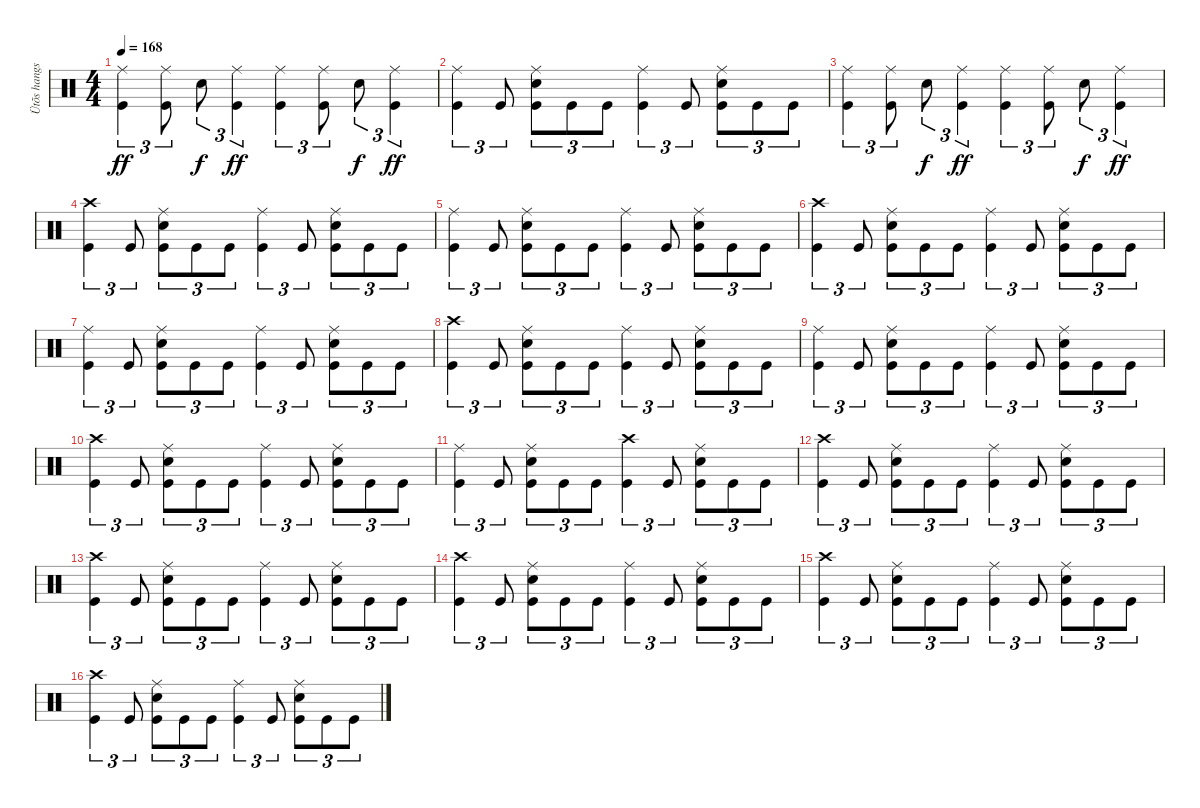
\track ("Ütõs hangszer" "Ütõs hangs") {instrument percussion}
\staff {score}
\articulation defaults
\ts (4 4)
\tempo 168
\clef neutral
\ks c
("Ride (middle)" "Kick (hit)").4{tu (3 2) dy ff} ("Ride (middle)" "Kick (hit)").8{tu (3 2)} "Electric Snare (hit)".8{tu (3 2) dy f} ("Ride (middle)" "Kick (hit)").4{tu (3 2) dy ff} ("Ride (middle)" "Kick (hit)").4{tu (3 2)} ("Ride (middle)" "Kick (hit)").8{tu (3 2)} "Electric Snare (hit)".8{tu (3 2) dy f} ("Ride (middle)" "Kick (hit)").4{tu (3 2) dy ff} |
("Ride (middle)" "Kick (hit)").4{tu (3 2)} "Kick (hit)".8{tu (3 2)} ("Ride (middle)" "Electric Snare (hit)" "Kick (hit)").8{tu (3 2)} "Kick (hit)".8{tu (3 2)} "Kick (hit)".8{tu (3 2)} ("Ride (middle)" "Kick (hit)").4{tu (3 2)} "Kick (hit)".8{tu (3 2)} ("Ride (middle)" "Electric Snare (hit)" "Kick (hit)").8{tu (3 2)} "Kick (hit)".8{tu (3 2)} "Kick (hit)".8{tu (3 2)} |
("Ride (middle)" "Kick (hit)").4{tu (3 2)} ("Ride (middle)" "Kick (hit)").8{tu (3 2)} "Electric Snare (hit)".8{tu (3 2) dy f} ("Ride (middle)" "Kick (hit)").4{tu (3 2) dy ff} ("Ride (middle)" "Kick (hit)").4{tu (3 2)} ("Ride (middle)" "Kick (hit)").8{tu (3 2)} "Electric Snare (hit)".8{tu (3 2) dy f} ("Ride (middle)" "Kick (hit)").4{tu (3 2) dy ff} |
("Crash high (hit)" "Kick (hit)").4{tu (3 2)} "Kick (hit)".8{tu (3 2)} ("Ride (middle)" "Electric Snare (hit)" "Kick (hit)").8{tu (3 2)} "Kick (hit)".8{tu (3 2)} "Kick (hit)".8{tu (3 2)} ("Ride (middle)" "Kick (hit)").4{tu (3 2)} "Kick (hit)".8{tu (3 2)} ("Ride (middle)" "Electric Snare (hit)" "Kick (hit)").8{tu (3 2)} "Kick (hit)".8{tu (3 2)} "Kick (hit)".8{tu (3 2)} |
("Ride (middle)" "Kick (hit)").4{tu (3 2)} "Kick (hit)".8{tu (3 2)} ("Ride (middle)" "Electric Snare (hit)" "Kick (hit)").8{tu (3 2)} "Kick (hit)".8{tu (3 2)} "Kick (hit)".8{tu (3 2)} ("Ride (middle)" "Kick (hit)").4{tu (3 2)} "Kick (hit)".8{tu (3 2)} ("Ride (middle)" "Electric Snare (hit)" "Kick (hit)").8{tu (3 2)} "Kick (hit)".8{tu (3 2)} "Kick (hit)".8{tu (3 2)} |
("Crash high (hit)" "Kick (hit)").4{tu (3 2)} "Kick (hit)".8{tu (3 2)} ("Ride (middle)" "Electric Snare (hit)" "Kick (hit)").8{tu (3 2)} "Kick (hit)".8{tu (3 2)} "Kick (hit)".8{tu (3 2)} ("Ride (middle)" "Kick (hit)").4{tu (3 2)} "Kick (hit)".8{tu (3 2)} ("Ride (middle)" "Electric Snare (hit)" "Kick (hit)").8{tu (3 2)} "Kick (hit)".8{tu (3 2)} "Kick (hit)".8{tu (3 2)} |
("Ride (middle)" "Kick (hit)").4{tu (3 2)} "Kick (hit)".8{tu (3 2)} ("Ride (middle)" "Electric Snare (hit)" "Kick (hit)").8{tu (3 2)} "Kick (hit)".8{tu (3 2)} "Kick (hit)".8{tu (3 2)} ("Ride (middle)" "Kick (hit)").4{tu (3 2)} "Kick (hit)".8{tu (3 2)} ("Ride (middle)" "Electric Snare (hit)" "Kick (hit)").8{tu (3 2)} "Kick (hit)".8{tu (3 2)} "Kick (hit)".8{tu (3 2)} |
("Crash high (hit)" "Kick (hit)").4{tu (3 2)} "Kick (hit)".8{tu (3 2)} ("Ride (middle)" "Electric Snare (hit)" "Kick (hit)").8{tu (3 2)} "Kick (hit)".8{tu (3 2)} "Kick (hit)".8{tu (3 2)} ("Ride (middle)" "Kick (hit)").4{tu (3 2)} "Kick (hit)".8{tu (3 2)} ("Ride (middle)" "Electric Snare (hit)" "Kick (hit)").8{tu (3 2)} "Kick (hit)".8{tu (3 2)} "Kick (hit)".8{tu (3 2)} |
("Ride (middle)" "Kick (hit)").4{tu (3 2)} "Kick (hit)".8{tu (3 2)} ("Ride (middle)" "Electric Snare (hit)" "Kick (hit)").8{tu (3 2)} "Kick (hit)".8{tu (3 2)} "Kick (hit)".8{tu (3 2)} ("Ride (middle)" "Kick (hit)").4{tu (3 2)} "Kick (hit)".8{tu (3 2)} ("Ride (middle)" "Electric Snare (hit)" "Kick (hit)").8{tu (3 2)} "Kick (hit)".8{tu (3 2)} "Kick (hit)".8{tu (3 2)} |
("Crash high (hit)" "Kick (hit)").4{tu (3 2)} "Kick (hit)".8{tu (3 2)} ("Ride (middle)" "Electric Snare (hit)" "Kick (hit)").8{tu (3 2)} "Kick (hit)".8{tu (3 2)} "Kick (hit)".8{tu (3 2)} ("Ride (middle)" "Kick (hit)").4{tu (3 2)} "Kick (hit)".8{tu (3 2)} ("Ride (middle)" "Electric Snare (hit)" "Kick (hit)").8{tu (3 2)} "Kick (hit)".8{tu (3 2)} "Kick (hit)".8{tu (3 2)} |
("Ride (middle)" "Kick (hit)").4{tu (3 2)} "Kick (hit)".8{tu (3 2)} ("Ride (middle)" "Electric Snare (hit)" "Kick (hit)").8{tu (3 2)} "Kick (hit)".8{tu (3 2)} "Kick (hit)".8{tu (3 2)} ("Crash high (hit)" "Kick (hit)").4{tu (3 2)} "Kick (hit)".8{tu (3 2)} ("Ride (middle)" "Electric Snare (hit)" "Kick (hit)").8{tu (3 2)} "Kick (hit)".8{tu (3 2)} "Kick (hit)".8{tu (3 2)} |
("Crash high (hit)" "Kick (hit)").4{tu (3 2)} "Kick (hit)".8{tu (3 2)} ("Ride (middle)" "Electric Snare (hit)" "Kick (hit)").8{tu (3 2)} "Kick (hit)".8{tu (3 2)} "Kick (hit)".8{tu (3 2)} ("Ride (middle)" "Kick (hit)").4{tu (3 2)} "Kick (hit)".8{tu (3 2)} ("Ride (middle)" "Electric Snare (hit)" "Kick (hit)").8{tu (3 2)} "Kick (hit)".8{tu (3 2)} "Kick (hit)".8{tu (3 2)} |
("Crash high (hit)" "Kick (hit)").4{tu (3 2)} "Kick (hit)".8{tu (3 2)} ("Ride (middle)" "Electric Snare (hit)" "Kick (hit)").8{tu (3 2)} "Kick (hit)".8{tu (3 2)} "Kick (hit)".8{tu (3 2)} ("Ride (middle)" "Kick (hit)").4{tu (3 2)} "Kick (hit)".8{tu (3 2)} ("Ride (middle)" "Electric Snare (hit)" "Kick (hit)").8{tu (3 2)} "Kick (hit)".8{tu (3 2)} "Kick (hit)".8{tu (3 2)} |
("Crash high (hit)" "Kick (hit)").4{tu (3 2)} "Kick (hit)".8{tu (3 2)} ("Ride (middle)" "Electric Snare (hit)" "Kick (hit)").8{tu (3 2)} "Kick (hit)".8{tu (3 2)} "Kick (hit)".8{tu (3 2)} ("Ride (middle)" "Kick (hit)").4{tu (3 2)} "Kick (hit)".8{tu (3 2)} ("Ride (middle)" "Electric Snare (hit)" "Kick (hit)").8{tu (3 2)} "Kick (hit)".8{tu (3 2)} "Kick (hit)".8{tu (3 2)} |
("Crash high (hit)" "Kick (hit)").4{tu (3 2)} "Kick (hit)".8{tu (3 2)} ("Ride (middle)" "Electric Snare (hit)" "Kick (hit)").8{tu (3 2)} "Kick (hit)".8{tu (3 2)} "Kick (hit)".8{tu (3 2)} ("Ride (middle)" "Kick (hit)").4{tu (3 2)} "Kick (hit)".8{tu (3 2)} ("Ride (middle)" "Electric Snare (hit)" "Kick (hit)").8{tu (3 2)} "Kick (hit)".8{tu (3 2)} "Kick (hit)".8{tu (3 2)} |
("Crash high (hit)" "Kick (hit)").4{tu (3 2)} "Kick (hit)".8{tu (3 2)} ("Ride (middle)" "Electric Snare (hit)" "Kick (hit)").8{tu (3 2)} "Kick (hit)".8{tu (3 2)} "Kick (hit)".8{tu (3 2)} ("Ride (middle)" "Kick (hit)").4{tu (3 2)} "Kick (hit)".8{tu (3 2)} ("Ride (middle)" "Electric Snare (hit)" "Kick (hit)").8{tu (3 2)} "Kick (hit)".8{tu (3 2)} "Kick (hit)".8{tu (3 2)}
